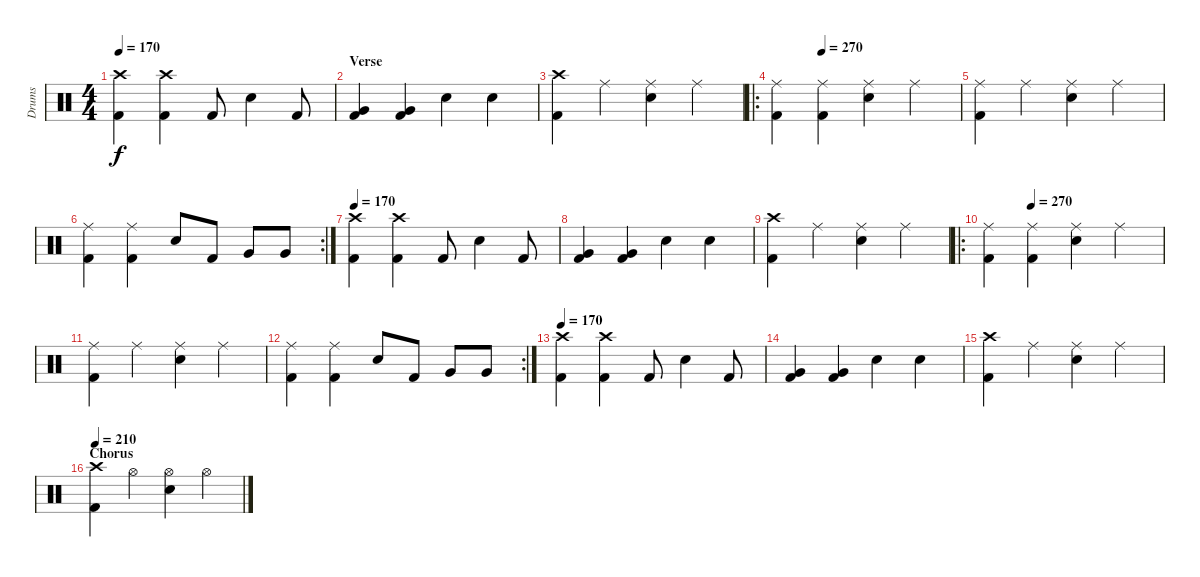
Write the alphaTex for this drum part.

\track ("Drums" "Drums") {instrument percussion}
\staff {score}
\articulation defaults
\ts (4 4)
\tempo 170
\clef neutral
\ks c
("Kick (hit) 2" "Crash high (hit)").4{dy f} ("Kick (hit) 2" "Crash high (hit)").4 "Kick (hit) 2".8 "Snare (hit) 2".4 "Kick (hit) 2".8 |
\section ("" "Verse")
("Very Low Tom (hit)" "Kick (hit) 2").4 ("Kick (hit) 2" "Very Low Tom (hit)").4 "Snare (hit) 2".4 "Snare (hit) 2".4 |
("Kick (hit) 2" "Crash high (hit)").4 "Ride (middle)".4 ("Ride (middle)" "Snare (hit) 2").4 "Ride (middle)".4 |
\ro
\tempo (270 0.25)
("Ride (middle)" "Kick (hit) 2").4 ("Ride (middle)" "Kick (hit) 2").4 ("Ride (middle)" "Snare (hit) 2").4 "Ride (middle)".4 |
("Ride (middle)" "Kick (hit) 2").4 "Ride (middle)".4 ("Ride (middle)" "Snare (hit) 2").4 "Ride (middle)".4 |
\rc 2
("Ride (middle)" "Kick (hit) 2").4 ("Ride (middle)" "Kick (hit) 2").4 "Snare (hit) 2".8 "Kick (hit) 2".8 "Very Low Tom (hit)".8 "Very Low Tom (hit)".8 |
\tempo 170
("Kick (hit) 2" "Crash high (hit)").4 ("Kick (hit) 2" "Crash high (hit)").4 "Kick (hit) 2".8 "Snare (hit) 2".4 "Kick (hit) 2".8 |
("Very Low Tom (hit)" "Kick (hit) 2").4 ("Kick (hit) 2" "Very Low Tom (hit)").4 "Snare (hit) 2".4 "Snare (hit) 2".4 |
("Kick (hit) 2" "Crash high (hit)").4 "Ride (middle)".4 ("Ride (middle)" "Snare (hit) 2").4 "Ride (middle)".4 |
\ro
\tempo (270 0.25)
("Ride (middle)" "Kick (hit) 2").4 ("Ride (middle)" "Kick (hit) 2").4 ("Ride (middle)" "Snare (hit) 2").4 "Ride (middle)".4 |
("Ride (middle)" "Kick (hit) 2").4 "Ride (middle)".4 ("Ride (middle)" "Snare (hit) 2").4 "Ride (middle)".4 |
\rc 2
("Ride (middle)" "Kick (hit) 2").4 ("Ride (middle)" "Kick (hit) 2").4 "Snare (hit) 2".8 "Kick (hit) 2".8 "Very Low Tom (hit)".8 "Very Low Tom (hit)".8 |
\tempo 170
("Kick (hit) 2" "Crash high (hit)").4 ("Kick (hit) 2" "Crash high (hit)").4 "Kick (hit) 2".8 "Snare (hit) 2".4 "Kick (hit) 2".8 |
("Very Low Tom (hit)" "Kick (hit) 2").4 ("Kick (hit) 2" "Very Low Tom (hit)").4 "Snare (hit) 2".4 "Snare (hit) 2".4 |
("Kick (hit) 2" "Crash high (hit)").4 "Ride (middle)".4 ("Ride (middle)" "Snare (hit) 2").4 "Ride (middle)".4 |
\section ("" "Chorus")
\tempo 210
("Crash high (hit)" "Kick (hit) 2").4 "Hi-Hat (open)".4 ("Hi-Hat (open)" "Snare (hit) 2").4 "Hi-Hat (open)".4
